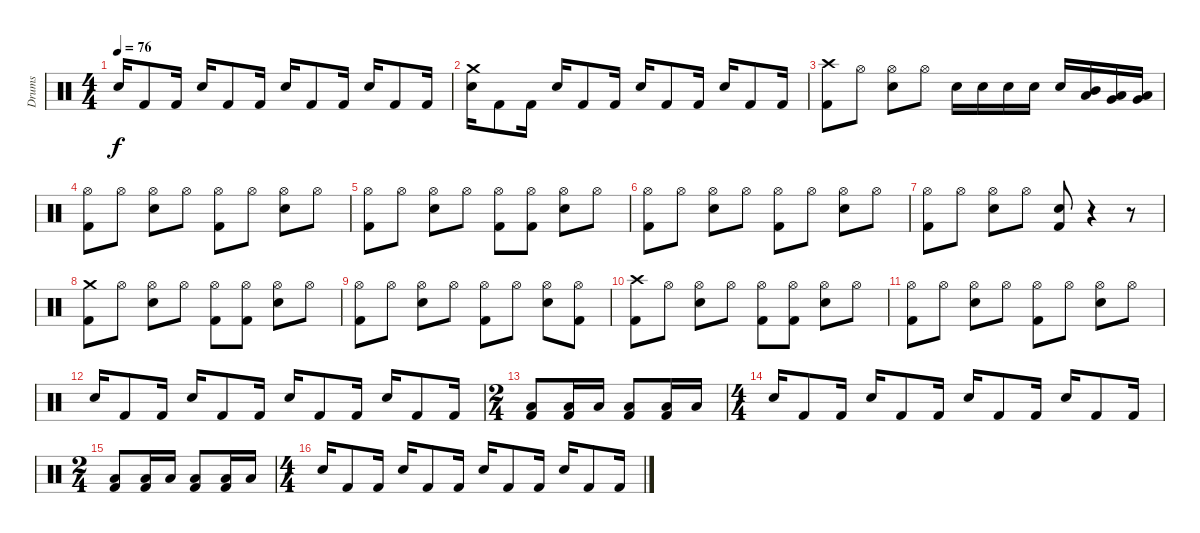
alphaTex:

\track ("Drums" "Drums") {instrument percussion}
\staff {score}
\articulation defaults
\ts (4 4)
\tempo 76
\clef neutral
\ks c "Snare (hit) 2".16{dy f} "Kick (hit) 2".8 "Kick (hit) 2".16 "Snare (hit) 2".16 "Kick (hit) 2".8 "Kick (hit) 2".16 "Snare (hit) 2".16 "Kick (hit) 2".8 "Kick (hit) 2".16 "Snare (hit) 2".16 "Kick (hit) 2".8 "Kick (hit) 2".16
|
("Crash medium (hit)" "Snare (hit) 2").16 "Kick (hit) 2".8 "Kick (hit) 2".16 "Snare (hit) 2".16 "Kick (hit) 2".8 "Kick (hit) 2".16 "Snare (hit) 2".16 "Kick (hit) 2".8 "Kick (hit) 2".16 "Snare (hit) 2".16 "Kick (hit) 2".8 "Kick (hit) 2".16 |
("Crash high (hit)" "Kick (hit) 2").8 "Hi-Hat (open)".8 ("Snare (hit) 2" "Hi-Hat (open)").8 "Hi-Hat (open)".8 "Snare (hit) 2".16 "Snare (hit) 2".16 "Snare (hit) 2".16 "Snare (hit) 2".16 "Snare (hit) 2".16 ("Low Tom (hit)" "Mid Tom (hit)").16 ("Low Tom (hit)" "Very Low Tom (hit)").16 ("Low Floor Tom (hit)" "Very Low Tom (hit)").16 |
("Kick (hit) 2" "Hi-Hat (open)").8 "Hi-Hat (open)".8 ("Snare (hit) 2" "Hi-Hat (open)").8 "Hi-Hat (open)".8 ("Kick (hit) 2" "Hi-Hat (open)").8 "Hi-Hat (open)".8 ("Hi-Hat (open)" "Snare (hit) 2").8 "Hi-Hat (open)".8 |
("Kick (hit) 2" "Hi-Hat (open)").8 "Hi-Hat (open)".8 ("Snare (hit) 2" "Hi-Hat (open)").8 "Hi-Hat (open)".8 ("Kick (hit) 2" "Hi-Hat (open)").8 ("Kick (hit) 2" "Hi-Hat (open)").8 ("Hi-Hat (open)" "Snare (hit) 2").8 "Hi-Hat (open)".8 |
("Kick (hit) 2" "Hi-Hat (open)").8 "Hi-Hat (open)".8 ("Snare (hit) 2" "Hi-Hat (open)").8 "Hi-Hat (open)".8 ("Kick (hit) 2" "Hi-Hat (open)").8 "Hi-Hat (open)".8 ("Hi-Hat (open)" "Snare (hit) 2").8 "Hi-Hat (open)".8 |
("Kick (hit) 2" "Hi-Hat (open)").8 "Hi-Hat (open)".8 ("Hi-Hat (open)" "Snare (hit) 2").8 "Hi-Hat (open)".8 ("Snare (hit) 2" "Kick (hit) 2").8 r.4 r.8 |
("Crash medium (hit)" "Kick (hit) 2").8 "Hi-Hat (open)".8 ("Hi-Hat (open)" "Snare (hit) 2").8 "Hi-Hat (open)".8 ("Kick (hit) 2" "Hi-Hat (open)").8 ("Kick (hit) 2" "Hi-Hat (open)").8 ("Snare (hit) 2" "Hi-Hat (open)").8 "Hi-Hat (open)".8 |
("Kick (hit) 2" "Hi-Hat (open)").8 "Hi-Hat (open)".8 ("Snare (hit) 2" "Hi-Hat (open)").8 "Hi-Hat (open)".8 ("Kick (hit) 2" "Hi-Hat (open)").8 "Hi-Hat (open)".8 ("Snare (hit) 2" "Hi-Hat (open)").8 ("Kick (hit) 2" "Hi-Hat (open)").8 |
("Crash high (hit)" "Kick (hit) 2").8 "Hi-Hat (open)".8 ("Snare (hit) 2" "Hi-Hat (open)").8 "Hi-Hat (open)".8 ("Hi-Hat (open)" "Kick (hit) 2").8 ("Hi-Hat (open)" "Kick (hit) 2").8 ("Hi-Hat (open)" "Snare (hit) 2").8 "Hi-Hat (open)".8 |
("Kick (hit) 2" "Hi-Hat (open)").8 "Hi-Hat (open)".8 ("Hi-Hat (open)" "Snare (hit) 2").8 "Hi-Hat (open)".8 ("Hi-Hat (open)" "Kick (hit) 2").8 "Hi-Hat (open)".8 ("Snare (hit) 2" "Hi-Hat (open)").8 "Hi-Hat (open)".8 |
"Snare (hit) 2".16 "Kick (hit) 2".8 "Kick (hit) 2".16 "Snare (hit) 2".16 "Kick (hit) 2".8 "Kick (hit) 2".16 "Snare (hit) 2".16 "Kick (hit) 2".8 "Kick (hit) 2".16 "Snare (hit) 2".16 "Kick (hit) 2".8 "Kick (hit) 2".16 |
\ts (2 4)
("Low Floor Tom (hit)" "Kick (hit) 2").8 ("Kick (hit) 2" "Low Floor Tom (hit)").16 "Low Floor Tom (hit)".16 ("Low Floor Tom (hit)" "Kick (hit) 2").8 ("Kick (hit) 2" "Low Floor Tom (hit)").16 "Low Floor Tom (hit)".16 |
\ts (4 4)
"Snare (hit) 2".16 "Kick (hit) 2".8 "Kick (hit) 2".16 "Snare (hit) 2".16 "Kick (hit) 2".8 "Kick (hit) 2".16 "Snare (hit) 2".16 "Kick (hit) 2".8 "Kick (hit) 2".16 "Snare (hit) 2".16 "Kick (hit) 2".8 "Kick (hit) 2".16 |
\ts (2 4)
("Low Floor Tom (hit)" "Kick (hit) 2").8 ("Kick (hit) 2" "Low Floor Tom (hit)").16 "Low Floor Tom (hit)".16 ("Low Floor Tom (hit)" "Kick (hit) 2").8 ("Kick (hit) 2" "Low Floor Tom (hit)").16 "Low Floor Tom (hit)".16 |
\ts (4 4)
"Snare (hit) 2".16 "Kick (hit) 2".8 "Kick (hit) 2".16 "Snare (hit) 2".16 "Kick (hit) 2".8 "Kick (hit) 2".16 "Snare (hit) 2".16 "Kick (hit) 2".8 "Kick (hit) 2".16 "Snare (hit) 2".16 "Kick (hit) 2".8 "Kick (hit) 2".16
